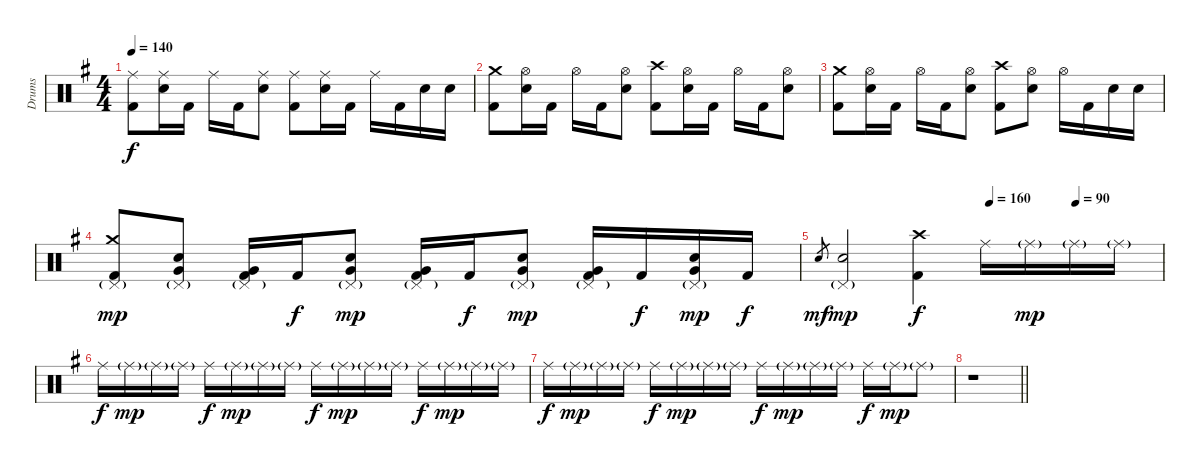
\track ("Drums" "Drums") {instrument percussion}
\staff {score}
\articulation defaults
\ts (4 4)
\tempo 140
\clef neutral
\ks g
("Ride (middle)" "Kick (hit) 2").8{dy f} ("Ride (middle)" "Electric Snare (hit)").16 "Kick (hit) 2".16 "Ride (middle)".16 "Kick (hit) 2".16 ("Ride (middle)" "Electric Snare (hit)").8 ("Ride (middle)" "Kick (hit) 2").8 ("Ride (middle)" "Electric Snare (hit)").16 "Kick (hit) 2".16 "Ride (middle)".16 "Kick (hit) 2".16 "Electric Snare (hit)".16 "Electric Snare (hit)".16 |
("Crash medium (hit)" "Kick (hit) 2").8 ("Hi-Hat (open)" "Electric Snare (hit)").16 "Kick (hit) 2".16 "Hi-Hat (open)".16 "Kick (hit) 2".16 ("Hi-Hat (open)" "Electric Snare (hit)").8 ("Crash high (hit)" "Kick (hit) 2").8 ("Hi-Hat (open)" "Electric Snare (hit)").16 "Kick (hit) 2".16 "Hi-Hat (open)".16 "Kick (hit) 2".16 ("Hi-Hat (open)" "Electric Snare (hit)").8 |
("Crash medium (hit)" "Kick (hit) 2").8 ("Hi-Hat (open)" "Electric Snare (hit)").16 "Kick (hit) 2".16 "Hi-Hat (open)".16 "Kick (hit) 2".16 ("Hi-Hat (open)" "Electric Snare (hit)").8 ("Crash high (hit)" "Kick (hit) 2").8 ("Hi-Hat (open)" "Electric Snare (hit)").8 "Hi-Hat (open)".16 "Kick (hit) 2".16 "Electric Snare (hit)".16 "Electric Snare (hit)".16 |
("Crash medium (hit)" "Pedal Hi-Hat (hit)"{g} "Kick (hit) 2").8{dy mp} ("Pedal Hi-Hat (hit)"{g} "Electric Snare (hit)" "Very Low Tom (hit)").8 ("Pedal Hi-Hat (hit)"{g} "Very Low Tom (hit)" "Kick (hit) 2").16 "Kick (hit) 2".16{dy f} ("Pedal Hi-Hat (hit)"{g} "Electric Snare (hit)" "Very Low Tom (hit)").8{dy mp} ("Pedal Hi-Hat (hit)"{g} "Very Low Tom (hit)" "Kick (hit) 2").16 "Kick (hit) 2".16{dy f} ("Pedal Hi-Hat (hit)"{g} "Electric Snare (hit)" "Very Low Tom (hit)").8{dy mp} ("Pedal Hi-Hat (hit)"{g} "Very Low Tom (hit)" "Kick (hit) 2").16 "Kick (hit) 2".16{dy f} ("Pedal Hi-Hat (hit)"{g} "Electric Snare (hit)" "Very Low Tom (hit)").16{dy mp} "Kick (hit) 2".16{dy f} |
\tempo (160 0.5)
\tempo (90 0.75)
"Electric Snare (hit)".8{gr dy mf} ("Pedal Hi-Hat (hit)"{g} "Electric Snare (hit)").2{dy mp} ("Crash high (hit)" "Kick (hit) 2").4{dy f} "Ride (middle)".16{volume 4} "Ride (middle)"{g}.16{dy mp} "Ride (middle)"{g}.16 "Ride (middle)"{g}.16 |
"Ride (middle)".16{dy f} "Ride (middle)"{g}.16{dy mp} "Ride (middle)"{g}.16 "Ride (middle)"{g}.16 "Ride (middle)".16{dy f} "Ride (middle)"{g}.16{dy mp} "Ride (middle)"{g}.16 "Ride (middle)"{g}.16 "Ride (middle)".16{dy f} "Ride (middle)"{g}.16{dy mp} "Ride (middle)"{g}.16 "Ride (middle)"{g}.16 "Ride (middle)".16{dy f} "Ride (middle)"{g}.16{dy mp} "Ride (middle)"{g}.16 "Ride (middle)"{g}.16 |
"Ride (middle)".16{dy f} "Ride (middle)"{g}.16{dy mp} "Ride (middle)"{g}.16 "Ride (middle)"{g}.16 "Ride (middle)".16{dy f} "Ride (middle)"{g}.16{dy mp} "Ride (middle)"{g}.16 "Ride (middle)"{g}.16 "Ride (middle)".16{dy f} "Ride (middle)"{g}.16{dy mp} "Ride (middle)"{g}.16 "Ride (middle)"{g}.16 "Ride (middle)".16{dy f} "Ride (middle)"{g}.16{dy mp} "Ride (middle)"{g}.8 |
\barLineRight lightlight
r.1
